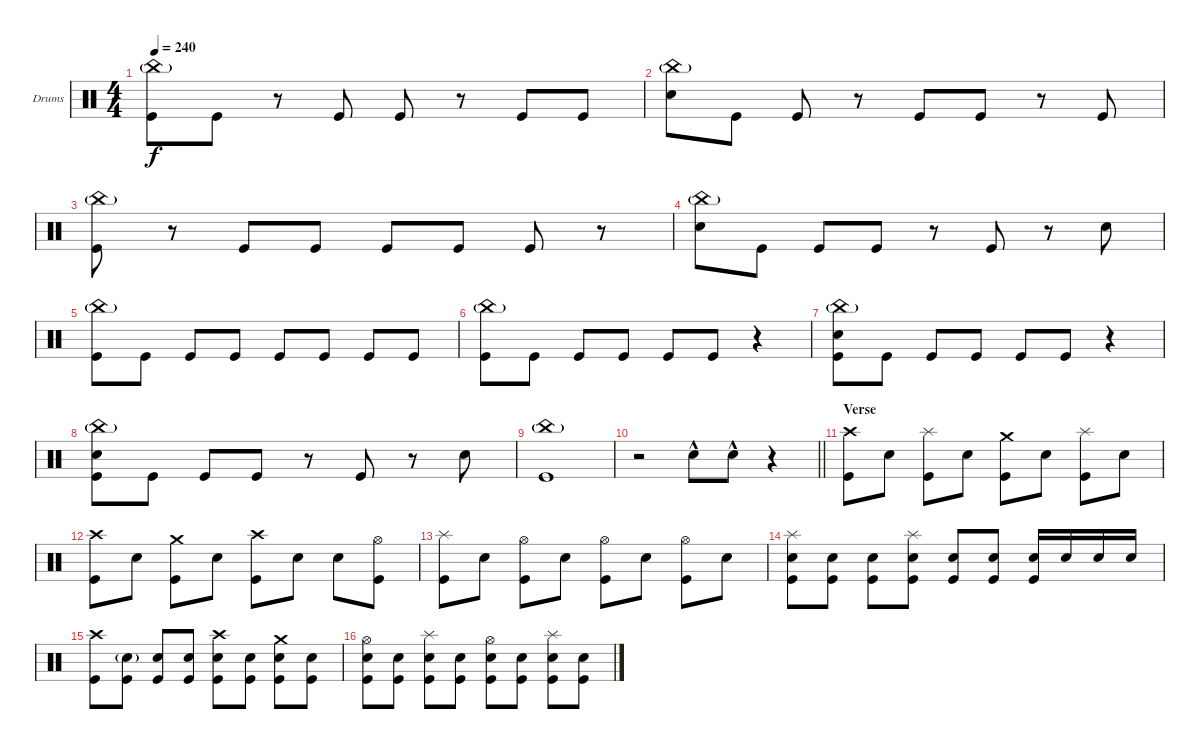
\bracketExtendMode groupsimilarinstruments
\firstSystemTrackNameOrientation horizontal
\otherSystemsTrackNameOrientation horizontal
\track ("Drumkit" "Drums") {instrument percussion}
\staff {score}
\articulation defaults
\ts (4 4)
\tempo 240
\clef neutral
\ks c
("China (hit)"{g} "Kick (hit)").8{dy f} "Kick (hit)".8 r.8 "Kick (hit)".8 "Kick (hit)".8 r.8 "Kick (hit)".8 "Kick (hit)".8 |
("China (hit)"{g} "Snare (hit) 2").8 "Kick (hit)".8 "Kick (hit)".8 r.8 "Kick (hit)".8 "Kick (hit)".8 r.8 "Kick (hit)".8 |
("China (hit)"{g} "Kick (hit)").8 r.8 "Kick (hit)".8 "Kick (hit)".8 "Kick (hit)".8 "Kick (hit)".8 "Kick (hit)".8 r.8 |
("China (hit)"{g} "Snare (hit) 2").8 "Kick (hit)".8 "Kick (hit)".8 "Kick (hit)".8 r.8 "Kick (hit)".8 r.8 "Snare (hit) 2".8 |
("China (hit)"{g} "Kick (hit)").8 "Kick (hit)".8 "Kick (hit)".8 "Kick (hit)".8 "Kick (hit)".8 "Kick (hit)".8 "Kick (hit)".8 "Kick (hit)".8 |
("China (hit)"{g} "Kick (hit)").8 "Kick (hit)".8 "Kick (hit)".8 "Kick (hit)".8 "Kick (hit)".8 "Kick (hit)".8 r.4 |
("China (hit)"{g} "Snare (hit) 2" "Kick (hit)").8 "Kick (hit)".8 "Kick (hit)".8 "Kick (hit)".8 "Kick (hit)".8 "Kick (hit)".8 r.4 |
("China (hit)"{g} "Snare (hit) 2" "Kick (hit)").8 "Kick (hit)".8 "Kick (hit)".8 "Kick (hit)".8 r.8 "Kick (hit)".8 r.8 "Snare (hit) 2".8 |
("China (hit)"{g} "Kick (hit)").1 |
\barLineRight lightlight
r.2 "Snare (hit) 2"{hac}.8 "Snare (hit) 2"{hac}.8 r.4 |
\section ("" "Verse")
("Crash high (hit)" "Kick (hit)").8 "Snare (hit) 2".8 ("Splash (hit)" "Kick (hit)").8 "Snare (hit) 2".8 ("Crash medium (hit)" "Kick (hit)").8 "Snare (hit) 2".8 ("Splash (hit)" "Kick (hit)").8 "Snare (hit) 2".8 |
("Crash high (hit)" "Kick (hit)").8 "Snare (hit) 2".8 ("Crash medium (hit)" "Kick (hit)").8 "Snare (hit) 2".8 ("Crash high (hit)" "Kick (hit)").8 "Snare (hit) 2".8 "Snare (hit) 2".8 ("Hi-Hat (open)" "Kick (hit)").8 |
("Splash (hit)" "Kick (hit)").8 "Snare (hit) 2".8 ("Hi-Hat (open)" "Kick (hit)").8 "Snare (hit) 2".8 ("Hi-Hat (open)" "Kick (hit)").8 "Snare (hit) 2".8 ("Hi-Hat (open)" "Kick (hit)").8 "Snare (hit) 2".8 |
("Splash (hit)" "Snare (hit) 2" "Kick (hit)").8 ("Snare (hit) 2" "Kick (hit)").8 ("Snare (hit) 2" "Kick (hit)").8 ("Splash (hit)" "Snare (hit) 2" "Kick (hit)").8 ("Snare (hit) 2" "Kick (hit)").8 ("Snare (hit) 2" "Kick (hit)").8 ("Snare (hit) 2" "Kick (hit)").16 "Snare (hit) 2".16 "Snare (hit) 2".16 "Snare (hit) 2".16 |
("Crash high (hit)" "Kick (hit)").8 ("Snare (hit) 2"{g} "Kick (hit)").8 ("Snare (hit) 2" "Kick (hit)").8 ("Snare (hit) 2" "Kick (hit)").8 ("Crash high (hit)" "Snare (hit) 2" "Kick (hit)").8 ("Snare (hit) 2" "Kick (hit)").8 ("Crash medium (hit)" "Snare (hit) 2" "Kick (hit)").8 ("Snare (hit) 2" "Kick (hit)").8 |
("Hi-Hat (open)" "Snare (hit) 2" "Kick (hit)").8 ("Snare (hit) 2" "Kick (hit)").8 ("Splash (hit)" "Snare (hit) 2" "Kick (hit)").8 ("Snare (hit) 2" "Kick (hit)").8 ("Hi-Hat (open)" "Snare (hit) 2" "Kick (hit)").8 ("Snare (hit) 2" "Kick (hit)").8 ("Splash (hit)" "Snare (hit) 2" "Kick (hit)").8 ("Snare (hit) 2" "Kick (hit)").8
